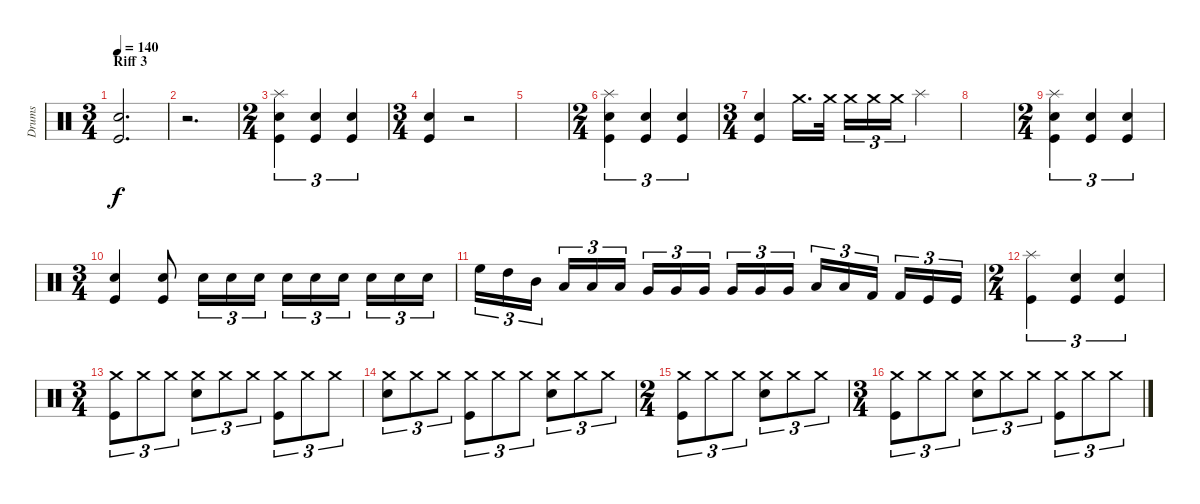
\track ("Drums" "Drums") {instrument percussion}
\staff {score}
\articulation defaults
\ts (3 4)
\section ("" "Riff 3")
\tempo 140
\clef neutral
\ks c
("Electric Snare (hit)" "Kick (hit)").2{d dy f} |
r.2{d} |
\ts (2 4)
("Splash (hit)" "Electric Snare (hit)" "Kick (hit)").4{tu (3 2)} ("Electric Snare (hit)" "Kick (hit)").4{tu (3 2)} ("Electric Snare (hit)" "Kick (hit)").4{tu (3 2)} |
\ts (3 4)
("Electric Snare (hit)" "Kick (hit)").4 r.2 |
|
\ts (2 4)
("Splash (hit)" "Electric Snare (hit)" "Kick (hit)").4{tu (3 2)} ("Electric Snare (hit)" "Kick (hit)").4{tu (3 2)} ("Electric Snare (hit)" "Kick (hit)").4{tu (3 2)} |
\ts (3 4)
("Electric Snare (hit)" "Kick (hit)").4 "Crash medium (hit)".16{d} "Crash medium (hit)".32{beam splitsecondary} "Crash medium (hit)".16{tu (3 2)} "Crash medium (hit)".16{tu (3 2)} "Crash medium (hit)".16{tu (3 2)} "Splash (hit)".4 |
|
\ts (2 4)
("Splash (hit)" "Electric Snare (hit)" "Kick (hit)").4{tu (3 2)} ("Electric Snare (hit)" "Kick (hit)").4{tu (3 2)} ("Electric Snare (hit)" "Kick (hit)").4{tu (3 2)} |
\ts (3 4)
("Electric Snare (hit)" "Kick (hit)").4 ("Electric Snare (hit)" "Kick (hit)").8 "Electric Snare (hit)".16{tu (3 2)} "Electric Snare (hit)".16{tu (3 2)} "Electric Snare (hit)".16{tu (3 2)} "Snare (hit) 2".16{tu (3 2)} "Snare (hit) 2".16{tu (3 2)} "Snare (hit) 2".16{tu (3 2) beam splitsecondary} "Snare (hit) 2".16{tu (3 2)} "Snare (hit) 2".16{tu (3 2)} "Snare (hit) 2".16{tu (3 2)} |
"High Floor Tom (hit)".16{tu (3 2)} "High Tom (hit)".16{tu (3 2)} "Mid Tom (hit)".16{tu (3 2) beam splitsecondary} "Low Tom (hit)".16{tu (3 2)} "Low Tom (hit)".16{tu (3 2)} "Low Tom (hit)".16{tu (3 2)} "Very Low Tom (hit)".16{tu (3 2)} "Very Low Tom (hit)".16{tu (3 2)} "Very Low Tom (hit)".16{tu (3 2) beam splitsecondary} "Very Low Tom (hit)".16{tu (3 2)} "Very Low Tom (hit)".16{tu (3 2)} "Very Low Tom (hit)".16{tu (3 2)} "Low Floor Tom (hit)".16{tu (3 2)} "Low Floor Tom (hit)".16{tu (3 2)} "Kick (hit) 2".16{tu (3 2) beam splitsecondary} "Kick (hit) 2".16{tu (3 2)} "Kick (hit)".16{tu (3 2)} "Kick (hit)".16{tu (3 2)} |
\ts (2 4)
("Splash (hit)" "Kick (hit)").4{tu (3 2)} ("Electric Snare (hit)" "Kick (hit)").4{tu (3 2)} ("Electric Snare (hit)" "Kick (hit)").4{tu (3 2)} |
\ts (3 4)
("Crash medium (hit)" "Kick (hit)").8{tu (3 2)} "Crash medium (hit)".8{tu (3 2)} "Crash medium (hit)".8{tu (3 2)} ("Crash medium (hit)" "Electric Snare (hit)").8{tu (3 2)} "Crash medium (hit)".8{tu (3 2)} "Crash medium (hit)".8{tu (3 2)} ("Crash medium (hit)" "Kick (hit)").8{tu (3 2)} "Crash medium (hit)".8{tu (3 2)} "Crash medium (hit)".8{tu (3 2)} |
("Crash medium (hit)" "Electric Snare (hit)").8{tu (3 2)} "Crash medium (hit)".8{tu (3 2)} "Crash medium (hit)".8{tu (3 2)} ("Crash medium (hit)" "Kick (hit)").8{tu (3 2)} "Crash medium (hit)".8{tu (3 2)} "Crash medium (hit)".8{tu (3 2)} ("Crash medium (hit)" "Electric Snare (hit)").8{tu (3 2)} "Crash medium (hit)".8{tu (3 2)} "Crash medium (hit)".8{tu (3 2)} |
\ts (2 4)
("Crash medium (hit)" "Kick (hit)").8{tu (3 2)} "Crash medium (hit)".8{tu (3 2)} "Crash medium (hit)".8{tu (3 2)} ("Crash medium (hit)" "Electric Snare (hit)").8{tu (3 2)} "Crash medium (hit)".8{tu (3 2)} "Crash medium (hit)".8{tu (3 2)} |
\ts (3 4)
("Crash medium (hit)" "Kick (hit)").8{tu (3 2)} "Crash medium (hit)".8{tu (3 2)} "Crash medium (hit)".8{tu (3 2)} ("Crash medium (hit)" "Electric Snare (hit)").8{tu (3 2)} "Crash medium (hit)".8{tu (3 2)} "Crash medium (hit)".8{tu (3 2)} ("Crash medium (hit)" "Kick (hit)").8{tu (3 2)} "Crash medium (hit)".8{tu (3 2)} "Crash medium (hit)".8{tu (3 2)}
